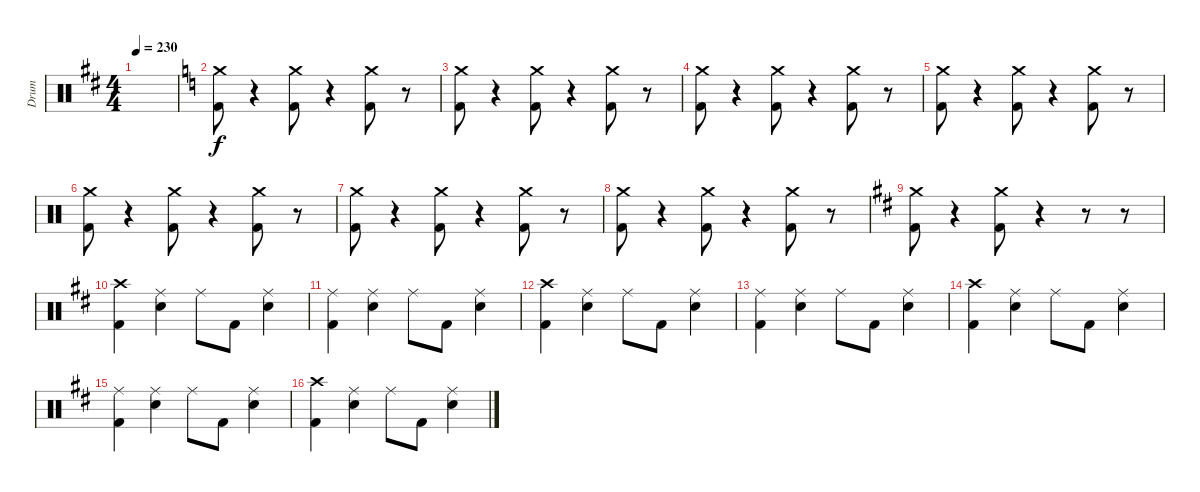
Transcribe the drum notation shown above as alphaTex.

\track ("Drum" "Drum") {instrument percussion}
\staff {score}
\articulation defaults
\ts (4 4)
\tempo 230
\clef neutral
\ks d
|
\ks c
("Crash medium (hit)" "Kick (hit) 2").8 r.4 ("Crash medium (hit)" "Kick (hit) 2").8 r.4 ("Crash medium (hit)" "Kick (hit) 2").8 r.8 |
("Crash medium (hit)" "Kick (hit) 2").8 r.4 ("Crash medium (hit)" "Kick (hit) 2").8 r.4 ("Crash medium (hit)" "Kick (hit) 2").8 r.8 |
("Crash medium (hit)" "Kick (hit) 2").8 r.4 ("Crash medium (hit)" "Kick (hit) 2").8 r.4 ("Crash medium (hit)" "Kick (hit) 2").8 r.8 |
("Crash medium (hit)" "Kick (hit) 2").8 r.4 ("Crash medium (hit)" "Kick (hit) 2").8 r.4 ("Crash medium (hit)" "Kick (hit) 2").8 r.8 |
("Crash medium (hit)" "Kick (hit) 2").8 r.4 ("Crash medium (hit)" "Kick (hit) 2").8 r.4 ("Crash medium (hit)" "Kick (hit) 2").8 r.8 |
("Crash medium (hit)" "Kick (hit) 2").8 r.4 ("Crash medium (hit)" "Kick (hit) 2").8 r.4 ("Crash medium (hit)" "Kick (hit) 2").8 r.8 |
("Crash medium (hit)" "Kick (hit) 2").8 r.4 ("Crash medium (hit)" "Kick (hit) 2").8 r.4 ("Crash medium (hit)" "Kick (hit) 2").8 r.8 |
\ks d
("Crash medium (hit)" "Kick (hit) 2").8 r.4 ("Crash medium (hit)" "Kick (hit) 2").8 r.4 r.8 r.8 |
("Crash high (hit)" "Kick (hit) 2").4 ("Ride (middle)" "Snare (hit) 2").4 "Ride (middle)".8 "Kick (hit) 2".8 ("Ride (middle)" "Snare (hit) 2").4 |
("Ride (middle)" "Kick (hit) 2").4 ("Ride (middle)" "Snare (hit) 2").4 "Ride (middle)".8 "Kick (hit) 2".8 ("Ride (middle)" "Snare (hit) 2").4 |
("Crash high (hit)" "Kick (hit) 2").4 ("Ride (middle)" "Snare (hit) 2").4 "Ride (middle)".8 "Kick (hit) 2".8 ("Ride (middle)" "Snare (hit) 2").4 |
("Ride (middle)" "Kick (hit) 2").4 ("Ride (middle)" "Snare (hit) 2").4 "Ride (middle)".8 "Kick (hit) 2".8 ("Ride (middle)" "Snare (hit) 2").4 |
("Crash high (hit)" "Kick (hit) 2").4 ("Ride (middle)" "Snare (hit) 2").4 "Ride (middle)".8 "Kick (hit) 2".8 ("Ride (middle)" "Snare (hit) 2").4 |
("Ride (middle)" "Kick (hit) 2").4 ("Ride (middle)" "Snare (hit) 2").4 "Ride (middle)".8 "Kick (hit) 2".8 ("Ride (middle)" "Snare (hit) 2").4 |
("Crash high (hit)" "Kick (hit) 2").4 ("Ride (middle)" "Snare (hit) 2").4 "Ride (middle)".8 "Kick (hit) 2".8 ("Ride (middle)" "Snare (hit) 2").4
